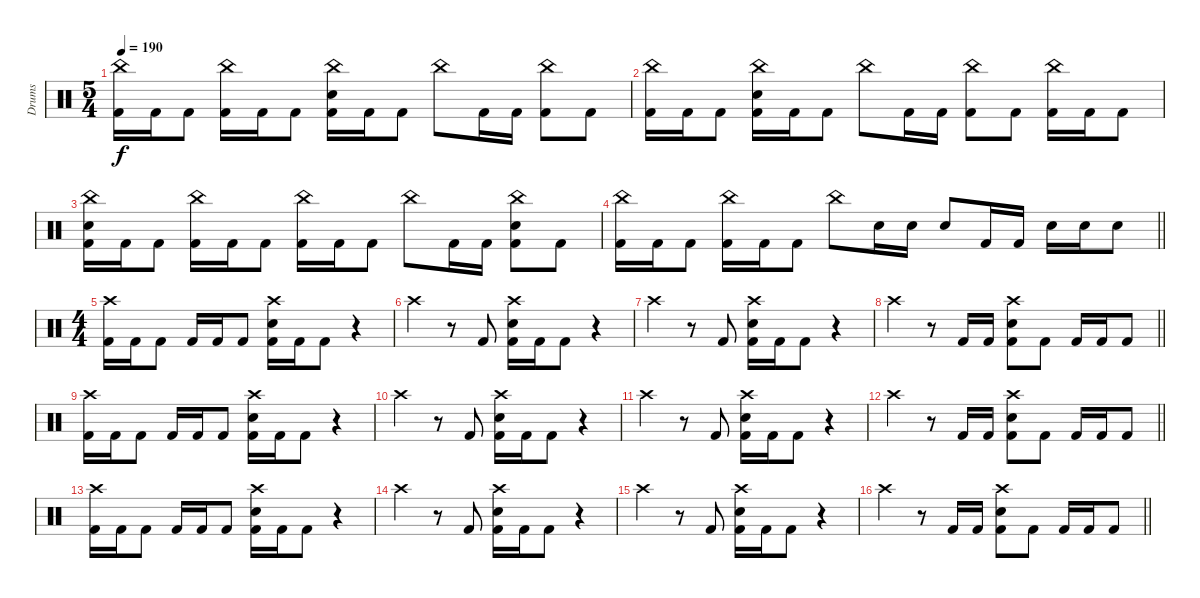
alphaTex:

\track ("Drums" "Drums") {instrument percussion}
\staff {score}
\articulation defaults
\ts (5 4)
\tempo 190
\clef neutral
\ks c
("China (hit)" "Kick (hit) 2").16{dy f} "Kick (hit) 2".16 "Kick (hit) 2".8 ("China (hit)" "Kick (hit) 2").16 "Kick (hit) 2".16 "Kick (hit) 2".8 ("China (hit)" "Electric Snare (hit)" "Kick (hit) 2").16 "Kick (hit) 2".16 "Kick (hit) 2".8 "China (hit)".8 "Kick (hit) 2".16 "Kick (hit) 2".16 ("China (hit)" "Kick (hit) 2").8 "Kick (hit) 2".8 |
("China (hit)" "Kick (hit) 2").16 "Kick (hit) 2".16 "Kick (hit) 2".8 ("China (hit)" "Electric Snare (hit)" "Kick (hit) 2").16 "Kick (hit) 2".16 "Kick (hit) 2".8 "China (hit)".8 "Kick (hit) 2".16 "Kick (hit) 2".16 ("China (hit)" "Kick (hit) 2").8 "Kick (hit) 2".8 ("China (hit)" "Kick (hit) 2").16 "Kick (hit) 2".16 "Kick (hit) 2".8 |
("China (hit)" "Electric Snare (hit)" "Kick (hit) 2").16 "Kick (hit) 2".16 "Kick (hit) 2".8 ("China (hit)" "Kick (hit) 2").16 "Kick (hit) 2".16 "Kick (hit) 2".8 ("China (hit)" "Kick (hit) 2").16 "Kick (hit) 2".16 "Kick (hit) 2".8 "China (hit)".8 "Kick (hit) 2".16 "Kick (hit) 2".16 ("China (hit)" "Electric Snare (hit)" "Kick (hit) 2").8 "Kick (hit) 2".8 |
\barLineRight lightlight
("China (hit)" "Kick (hit) 2").16 "Kick (hit) 2".16 "Kick (hit) 2".8 ("China (hit)" "Kick (hit) 2").16 "Kick (hit) 2".16 "Kick (hit) 2".8 "China (hit)".8 "Electric Snare (hit)".16 "Electric Snare (hit)".16 "Electric Snare (hit)".8 "Kick (hit) 2".16 "Kick (hit) 2".16 "Electric Snare (hit)".16 "Electric Snare (hit)".16 "Electric Snare (hit)".8 |
\ts (4 4)
("Crash high (hit)" "Kick (hit) 2").16 "Kick (hit) 2".16 "Kick (hit) 2".8 "Kick (hit) 2".16 "Kick (hit) 2".16 "Kick (hit) 2".8 ("Crash high (hit)" "Electric Snare (hit)" "Kick (hit) 2").16 "Kick (hit) 2".16 "Kick (hit) 2".8 r.4 |
"Crash high (hit)".4 r.8 "Kick (hit) 2".8 ("Crash high (hit)" "Electric Snare (hit)" "Kick (hit) 2").16 "Kick (hit) 2".16 "Kick (hit) 2".8 r.4 |
"Crash high (hit)".4 r.8 "Kick (hit) 2".8 ("Crash high (hit)" "Electric Snare (hit)" "Kick (hit) 2").16 "Kick (hit) 2".16 "Kick (hit) 2".8 r.4 |
\barLineRight lightlight "Crash high (hit)".4
r.8 "Kick (hit) 2".16 "Kick (hit) 2".16 ("Crash high (hit)" "Electric Snare (hit)" "Kick (hit) 2").8 "Kick (hit) 2".8 "Kick (hit) 2".16 "Kick (hit) 2".16 "Kick (hit) 2".8 |
("Crash high (hit)" "Kick (hit) 2").16 "Kick (hit) 2".16 "Kick (hit) 2".8 "Kick (hit) 2".16 "Kick (hit) 2".16 "Kick (hit) 2".8 ("Crash high (hit)" "Electric Snare (hit)" "Kick (hit) 2").16 "Kick (hit) 2".16 "Kick (hit) 2".8 r.4 |
"Crash high (hit)".4 r.8 "Kick (hit) 2".8 ("Crash high (hit)" "Electric Snare (hit)" "Kick (hit) 2").16 "Kick (hit) 2".16 "Kick (hit) 2".8 r.4 |
"Crash high (hit)".4 r.8 "Kick (hit) 2".8 ("Crash high (hit)" "Electric Snare (hit)" "Kick (hit) 2").16 "Kick (hit) 2".16 "Kick (hit) 2".8 r.4 |
\barLineRight lightlight "Crash high (hit)".4
r.8 "Kick (hit) 2".16 "Kick (hit) 2".16 ("Crash high (hit)" "Electric Snare (hit)" "Kick (hit) 2").8 "Kick (hit) 2".8 "Kick (hit) 2".16 "Kick (hit) 2".16 "Kick (hit) 2".8 |
("Crash high (hit)" "Kick (hit) 2").16 "Kick (hit) 2".16 "Kick (hit) 2".8 "Kick (hit) 2".16 "Kick (hit) 2".16 "Kick (hit) 2".8 ("Crash high (hit)" "Electric Snare (hit)" "Kick (hit) 2").16 "Kick (hit) 2".16 "Kick (hit) 2".8 r.4 |
"Crash high (hit)".4 r.8 "Kick (hit) 2".8 ("Crash high (hit)" "Electric Snare (hit)" "Kick (hit) 2").16 "Kick (hit) 2".16 "Kick (hit) 2".8 r.4 |
"Crash high (hit)".4 r.8 "Kick (hit) 2".8 ("Crash high (hit)" "Electric Snare (hit)" "Kick (hit) 2").16 "Kick (hit) 2".16 "Kick (hit) 2".8 r.4 |
\barLineRight lightlight "Crash high (hit)".4
r.8 "Kick (hit) 2".16 "Kick (hit) 2".16 ("Crash high (hit)" "Electric Snare (hit)" "Kick (hit) 2").8 "Kick (hit) 2".8 "Kick (hit) 2".16 "Kick (hit) 2".16 "Kick (hit) 2".8
